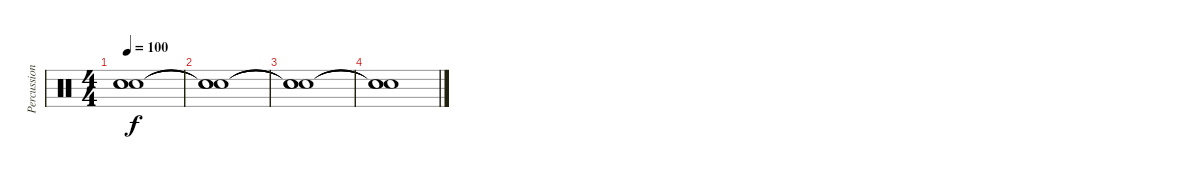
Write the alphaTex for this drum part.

\track ("Percussion Organ" "Percussion") {instrument percussion}
\staff {score}
\articulation defaults
\ts (4 4)
\tempo 100
\clef neutral
\ks c
("Snare (hit)"{t} "Snare (hit)"{t} "Snare (hit)"{t}).1{dy f} |
("Snare (hit)"{t} "Snare (hit)"{t} "Snare (hit)"{t}).1 |
("Snare (hit)"{t} "Snare (hit)"{t} "Snare (hit)"{t}).1 |
("Snare (hit)"{t} "Snare (hit)"{t} "Snare (hit)"{t}).1
